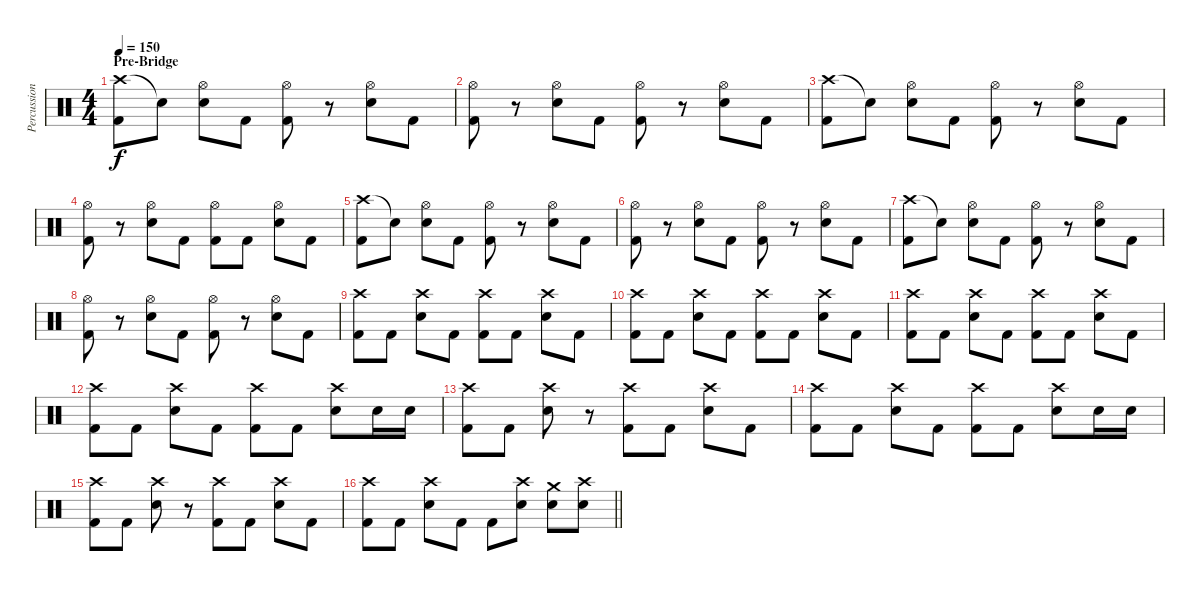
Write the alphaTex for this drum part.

\track ("Percussion" "Percussion") {instrument percussion}
\staff {score}
\articulation defaults
\ts (4 4)
\section ("" "Pre-Bridge")
\tempo 150
\clef neutral
\ks c
("Crash high (hit)" "Kick (hit) 2").8{dy f} "Snare (hit)"{t}.8 ("Hi-Hat (open)" "Electric Snare (hit)").8 "Kick (hit) 2".8 ("Hi-Hat (open)" "Kick (hit) 2").8 r.8 ("Hi-Hat (open)" "Electric Snare (hit)").8 "Kick (hit) 2".8 |
("Hi-Hat (open)" "Kick (hit) 2").8 r.8 ("Hi-Hat (open)" "Electric Snare (hit)").8 "Kick (hit) 2".8 ("Hi-Hat (open)" "Kick (hit) 2").8 r.8 ("Hi-Hat (open)" "Electric Snare (hit)").8 "Kick (hit) 2".8 |
("Crash high (hit)" "Kick (hit) 2").8 "Snare (hit)"{t}.8 ("Hi-Hat (open)" "Electric Snare (hit)").8 "Kick (hit) 2".8 ("Hi-Hat (open)" "Kick (hit) 2").8 r.8 ("Hi-Hat (open)" "Electric Snare (hit)").8 "Kick (hit) 2".8 |
("Hi-Hat (open)" "Kick (hit) 2").8 r.8 ("Hi-Hat (open)" "Electric Snare (hit)").8 "Kick (hit) 2".8 ("Hi-Hat (open)" "Kick (hit) 2").8 "Kick (hit) 2".8 ("Hi-Hat (open)" "Electric Snare (hit)").8 "Kick (hit) 2".8 |
("Crash high (hit)" "Kick (hit) 2").8 "Snare (hit)"{t}.8 ("Hi-Hat (open)" "Electric Snare (hit)").8 "Kick (hit) 2".8 ("Hi-Hat (open)" "Kick (hit) 2").8 r.8 ("Hi-Hat (open)" "Electric Snare (hit)").8 "Kick (hit) 2".8 |
("Hi-Hat (open)" "Kick (hit) 2").8 r.8 ("Hi-Hat (open)" "Electric Snare (hit)").8 "Kick (hit) 2".8 ("Hi-Hat (open)" "Kick (hit) 2").8 r.8 ("Hi-Hat (open)" "Electric Snare (hit)").8 "Kick (hit) 2".8 |
("Crash high (hit)" "Kick (hit) 2").8 "Snare (hit)"{t}.8 ("Hi-Hat (open)" "Electric Snare (hit)").8 "Kick (hit) 2".8 ("Hi-Hat (open)" "Kick (hit) 2").8 r.8 ("Hi-Hat (open)" "Electric Snare (hit)").8 "Kick (hit) 2".8 |
("Hi-Hat (open)" "Kick (hit) 2").8 r.8 ("Hi-Hat (open)" "Electric Snare (hit)").8 "Kick (hit) 2".8 ("Hi-Hat (open)" "Kick (hit) 2").8 r.8 ("Hi-Hat (open)" "Electric Snare (hit)").8 "Kick (hit) 2".8 |
("Crash high (hit)" "Kick (hit) 2").8 "Kick (hit) 2".8 ("Crash high (hit)" "Electric Snare (hit)").8 "Kick (hit) 2".8 ("Crash high (hit)" "Kick (hit) 2").8 "Kick (hit) 2".8 ("Crash high (hit)" "Electric Snare (hit)").8 "Kick (hit) 2".8 |
("Crash high (hit)" "Kick (hit) 2").8 "Kick (hit) 2".8 ("Crash high (hit)" "Electric Snare (hit)").8 "Kick (hit) 2".8 ("Crash high (hit)" "Kick (hit) 2").8 "Kick (hit) 2".8 ("Crash high (hit)" "Electric Snare (hit)").8 "Kick (hit) 2".8 |
("Crash high (hit)" "Kick (hit) 2").8 "Kick (hit) 2".8 ("Crash high (hit)" "Electric Snare (hit)").8 "Kick (hit) 2".8 ("Crash high (hit)" "Kick (hit) 2").8 "Kick (hit) 2".8 ("Crash high (hit)" "Electric Snare (hit)").8 "Kick (hit) 2".8 |
("Crash high (hit)" "Kick (hit) 2").8 "Kick (hit) 2".8 ("Crash high (hit)" "Electric Snare (hit)").8 "Kick (hit) 2".8 ("Crash high (hit)" "Kick (hit) 2").8 "Kick (hit) 2".8 ("Crash high (hit)" "Electric Snare (hit)").8 "Electric Snare (hit)".16 "Electric Snare (hit)".16 |
("Crash high (hit)" "Kick (hit) 2").8 "Kick (hit) 2".8 ("Crash high (hit)" "Electric Snare (hit)").8 r.8 ("Crash high (hit)" "Kick (hit) 2").8 "Kick (hit) 2".8 ("Crash high (hit)" "Electric Snare (hit)").8 "Kick (hit) 2".8 |
("Crash high (hit)" "Kick (hit) 2").8 "Kick (hit) 2".8 ("Crash high (hit)" "Electric Snare (hit)").8 "Kick (hit) 2".8 ("Crash high (hit)" "Kick (hit) 2").8 "Kick (hit) 2".8 ("Crash high (hit)" "Electric Snare (hit)").8 "Electric Snare (hit)".16 "Electric Snare (hit)".16 |
("Crash high (hit)" "Kick (hit) 2").8 "Kick (hit) 2".8 ("Crash high (hit)" "Electric Snare (hit)").8 r.8 ("Crash high (hit)" "Kick (hit) 2").8 "Kick (hit) 2".8 ("Crash high (hit)" "Electric Snare (hit)").8 "Kick (hit) 2".8 |
\barLineRight lightlight
("Crash high (hit)" "Kick (hit) 2").8 "Kick (hit) 2".8 ("Crash high (hit)" "Electric Snare (hit)").8 "Kick (hit) 2".8 "Kick (hit) 2".8 ("Crash high (hit)" "Electric Snare (hit)").8 ("Crash medium (hit)" "Electric Snare (hit)").8 ("Crash high (hit)" "Electric Snare (hit)").8
